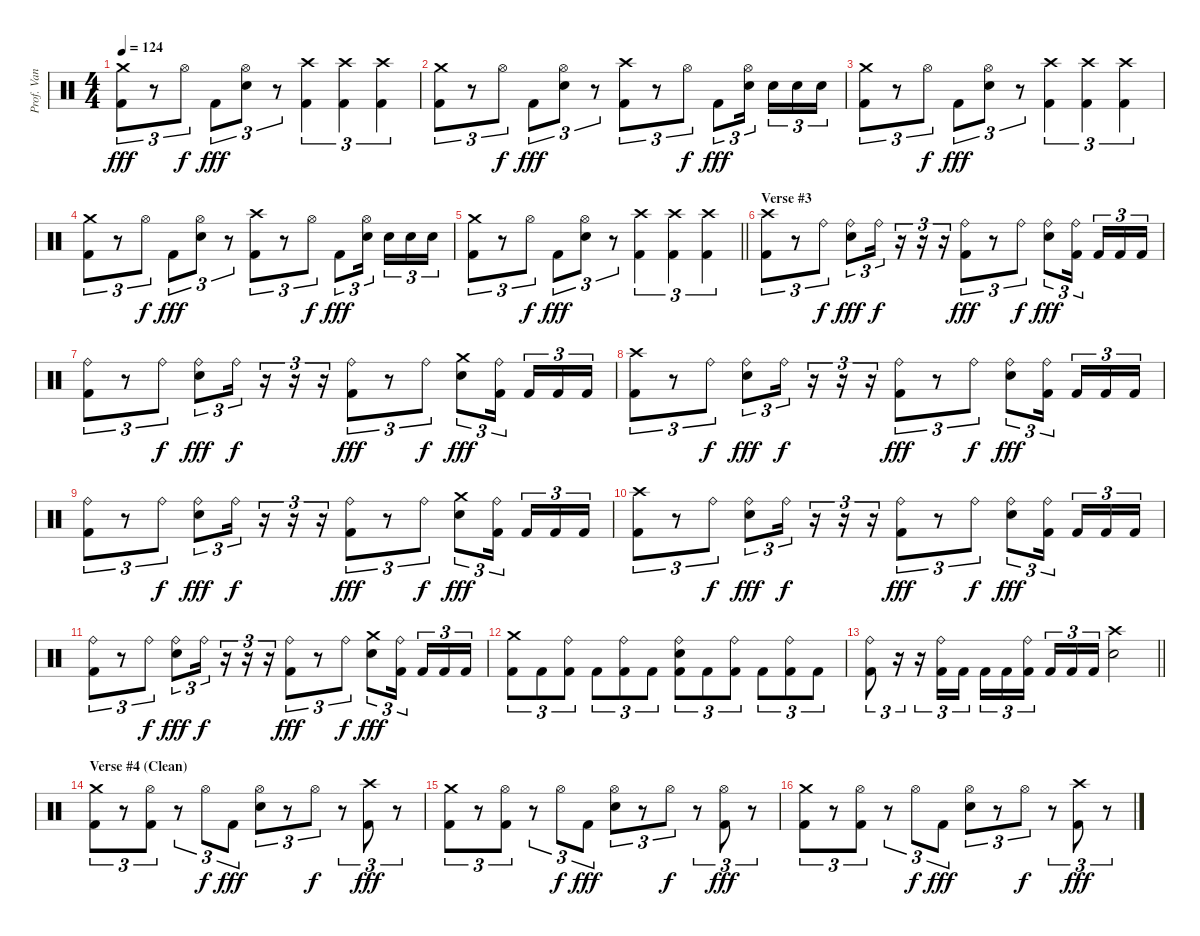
\track ("Prof. Van Helsing (Drums)" "Prof. Van ") {instrument percussion}
\staff {score}
\articulation defaults
\ts (4 4)
\tempo 124
\clef neutral
\ks c
("Crash medium (hit)" "Kick (hit) 2").8{tu (3 2) dy fff} r.8{tu (3 2)} "Hi-Hat (open)".8{tu (3 2) dy f} "Kick (hit) 2".8{tu (3 2) dy fff} ("Hi-Hat (open)" "Snare (hit) 2").8{tu (3 2)} r.8{tu (3 2)} ("Crash high (hit)" "Kick (hit) 2").4{tu (3 2)} ("Crash high (hit)" "Kick (hit) 2").4{tu (3 2)} ("Crash high (hit)" "Kick (hit) 2").4{tu (3 2)} |
("Crash medium (hit)" "Kick (hit) 2").8{tu (3 2)} r.8{tu (3 2)} "Hi-Hat (open)".8{tu (3 2) dy f} "Kick (hit) 2".8{tu (3 2) dy fff} ("Hi-Hat (open)" "Snare (hit) 2").8{tu (3 2)} r.8{tu (3 2)} ("Crash high (hit)" "Kick (hit) 2").8{tu (3 2)} r.8{tu (3 2)} "Hi-Hat (open)".8{tu (3 2) dy f} "Kick (hit) 2".8{tu (3 2) dy fff} ("Hi-Hat (open)" "Snare (hit) 2").16{tu (3 2) beam splitsecondary} "Snare (hit) 2".16{tu (3 2)} "Snare (hit) 2".16{tu (3 2)} "Snare (hit) 2".16{tu (3 2)} |
("Crash medium (hit)" "Kick (hit) 2").8{tu (3 2)} r.8{tu (3 2)} "Hi-Hat (open)".8{tu (3 2) dy f} "Kick (hit) 2".8{tu (3 2) dy fff} ("Hi-Hat (open)" "Snare (hit) 2").8{tu (3 2)} r.8{tu (3 2)} ("Crash high (hit)" "Kick (hit) 2").4{tu (3 2)} ("Crash high (hit)" "Kick (hit) 2").4{tu (3 2)} ("Crash high (hit)" "Kick (hit) 2").4{tu (3 2)} |
("Crash medium (hit)" "Kick (hit) 2").8{tu (3 2)} r.8{tu (3 2)} "Hi-Hat (open)".8{tu (3 2) dy f} "Kick (hit) 2".8{tu (3 2) dy fff} ("Hi-Hat (open)" "Snare (hit) 2").8{tu (3 2)} r.8{tu (3 2)} ("Crash high (hit)" "Kick (hit) 2").8{tu (3 2)} r.8{tu (3 2)} "Hi-Hat (open)".8{tu (3 2) dy f} "Kick (hit) 2".8{tu (3 2) dy fff} ("Hi-Hat (open)" "Snare (hit) 2").16{tu (3 2) beam splitsecondary} "Snare (hit) 2".16{tu (3 2)} "Snare (hit) 2".16{tu (3 2)} "Snare (hit) 2".16{tu (3 2)} |
\barLineRight lightlight
("Crash medium (hit)" "Kick (hit) 2").8{tu (3 2)} r.8{tu (3 2)} "Hi-Hat (open)".8{tu (3 2) dy f} "Kick (hit) 2".8{tu (3 2) dy fff} ("Hi-Hat (open)" "Snare (hit) 2").8{tu (3 2)} r.8{tu (3 2)} ("Crash high (hit)" "Kick (hit) 2").4{tu (3 2)} ("Crash high (hit)" "Kick (hit) 2").4{tu (3 2)} ("Crash high (hit)" "Kick (hit) 2").4{tu (3 2)} |
\section ("" "Verse #3")
("Crash high (hit)" "Kick (hit) 2").8{tu (3 2)} r.8{tu (3 2)} "Ride (bell)".8{tu (3 2) dy f} ("Ride (bell)" "Snare (hit) 2").8{tu (3 2) dy fff} "Ride (bell)".16{tu (3 2) dy f} r.16{tu (3 2)} r.16{tu (3 2)} r.16{tu (3 2)} ("Ride (bell)" "Kick (hit) 2").8{tu (3 2) dy fff} r.8{tu (3 2)} "Ride (bell)".8{tu (3 2) dy f} ("Ride (bell)" "Snare (hit) 2").8{tu (3 2) dy fff} ("Ride (bell)" "Kick (hit) 2").16{tu (3 2) beam splitsecondary} "Kick (hit) 2".16{tu (3 2)} "Kick (hit) 2".16{tu (3 2)} "Kick (hit) 2".16{tu (3 2)} |
("Ride (bell)" "Kick (hit) 2").8{tu (3 2)} r.8{tu (3 2)} "Ride (bell)".8{tu (3 2) dy f} ("Ride (bell)" "Snare (hit) 2").8{tu (3 2) dy fff} "Ride (bell)".16{tu (3 2) dy f} r.16{tu (3 2)} r.16{tu (3 2)} r.16{tu (3 2)} ("Ride (bell)" "Kick (hit) 2").8{tu (3 2) dy fff} r.8{tu (3 2)} "Ride (bell)".8{tu (3 2) dy f} ("Crash medium (hit)" "Snare (hit) 2").8{tu (3 2) dy fff} ("Ride (bell)" "Kick (hit) 2").16{tu (3 2) beam splitsecondary} "Kick (hit) 2".16{tu (3 2)} "Kick (hit) 2".16{tu (3 2)} "Kick (hit) 2".16{tu (3 2)} |
("Crash high (hit)" "Kick (hit) 2").8{tu (3 2)} r.8{tu (3 2)} "Ride (bell)".8{tu (3 2) dy f} ("Ride (bell)" "Snare (hit) 2").8{tu (3 2) dy fff} "Ride (bell)".16{tu (3 2) dy f} r.16{tu (3 2)} r.16{tu (3 2)} r.16{tu (3 2)} ("Ride (bell)" "Kick (hit) 2").8{tu (3 2) dy fff} r.8{tu (3 2)} "Ride (bell)".8{tu (3 2) dy f} ("Ride (bell)" "Snare (hit) 2").8{tu (3 2) dy fff} ("Ride (bell)" "Kick (hit) 2").16{tu (3 2) beam splitsecondary} "Kick (hit) 2".16{tu (3 2)} "Kick (hit) 2".16{tu (3 2)} "Kick (hit) 2".16{tu (3 2)} |
("Ride (bell)" "Kick (hit) 2").8{tu (3 2)} r.8{tu (3 2)} "Ride (bell)".8{tu (3 2) dy f} ("Ride (bell)" "Snare (hit) 2").8{tu (3 2) dy fff} "Ride (bell)".16{tu (3 2) dy f} r.16{tu (3 2)} r.16{tu (3 2)} r.16{tu (3 2)} ("Ride (bell)" "Kick (hit) 2").8{tu (3 2) dy fff} r.8{tu (3 2)} "Ride (bell)".8{tu (3 2) dy f} ("Crash medium (hit)" "Snare (hit) 2").8{tu (3 2) dy fff} ("Ride (bell)" "Kick (hit) 2").16{tu (3 2) beam splitsecondary} "Kick (hit) 2".16{tu (3 2)} "Kick (hit) 2".16{tu (3 2)} "Kick (hit) 2".16{tu (3 2)} |
("Crash high (hit)" "Kick (hit) 2").8{tu (3 2)} r.8{tu (3 2)} "Ride (bell)".8{tu (3 2) dy f} ("Ride (bell)" "Snare (hit) 2").8{tu (3 2) dy fff} "Ride (bell)".16{tu (3 2) dy f} r.16{tu (3 2)} r.16{tu (3 2)} r.16{tu (3 2)} ("Ride (bell)" "Kick (hit) 2").8{tu (3 2) dy fff} r.8{tu (3 2)} "Ride (bell)".8{tu (3 2) dy f} ("Ride (bell)" "Snare (hit) 2").8{tu (3 2) dy fff} ("Ride (bell)" "Kick (hit) 2").16{tu (3 2) beam splitsecondary} "Kick (hit) 2".16{tu (3 2)} "Kick (hit) 2".16{tu (3 2)} "Kick (hit) 2".16{tu (3 2)} |
("Ride (bell)" "Kick (hit) 2").8{tu (3 2)} r.8{tu (3 2)} "Ride (bell)".8{tu (3 2) dy f} ("Ride (bell)" "Snare (hit) 2").8{tu (3 2) dy fff} "Ride (bell)".16{tu (3 2) dy f} r.16{tu (3 2)} r.16{tu (3 2)} r.16{tu (3 2)} ("Ride (bell)" "Kick (hit) 2").8{tu (3 2) dy fff} r.8{tu (3 2)} "Ride (bell)".8{tu (3 2) dy f} ("Crash medium (hit)" "Snare (hit) 2").8{tu (3 2) dy fff} ("Ride (bell)" "Kick (hit) 2").16{tu (3 2) beam splitsecondary} "Kick (hit) 2".16{tu (3 2)} "Kick (hit) 2".16{tu (3 2)} "Kick (hit) 2".16{tu (3 2)} |
("Crash medium (hit)" "Kick (hit) 2").8{tu (3 2)} "Kick (hit) 2".8{tu (3 2)} ("Ride (bell)" "Kick (hit) 2").8{tu (3 2)} "Kick (hit) 2".8{tu (3 2)} ("Ride (bell)" "Kick (hit) 2").8{tu (3 2)} "Kick (hit) 2".8{tu (3 2)} ("Ride (bell)" "Snare (hit) 2" "Kick (hit) 2").8{tu (3 2)} "Kick (hit) 2".8{tu (3 2)} ("Ride (bell)" "Kick (hit) 2").8{tu (3 2)} "Kick (hit) 2".8{tu (3 2)} ("Ride (bell)" "Kick (hit) 2").8{tu (3 2)} "Kick (hit) 2".8{tu (3 2)} |
\barLineRight lightlight
("Ride (bell)" "Kick (hit) 2").8{tu (3 2)} r.16{tu (3 2)} r.16{tu (3 2)} ("Ride (bell)" "Kick (hit) 2").16{tu (3 2)} "Kick (hit) 2".16{tu (3 2)} "Kick (hit) 2".16{tu (3 2)} "Kick (hit) 2".16{tu (3 2)} ("Ride (bell)" "Kick (hit) 2").16{tu (3 2) beam splitsecondary} "Kick (hit) 2".16{tu (3 2)} "Kick (hit) 2".16{tu (3 2)} "Kick (hit) 2".16{tu (3 2)} ("Crash high (hit)" "Snare (hit) 2").2 |
\section ("" "Verse #4 (Clean)")
("Crash medium (hit)" "Kick (hit) 2").8{tu (3 2)} r.8{tu (3 2)} ("Hi-Hat (open)" "Kick (hit) 2").8{tu (3 2)} r.8{tu (3 2)} "Hi-Hat (open)".8{tu (3 2) dy f} "Kick (hit) 2".8{tu (3 2) dy fff} ("Hi-Hat (open)" "Snare (hit) 2").8{tu (3 2)} r.8{tu (3 2)} "Hi-Hat (open)".8{tu (3 2) dy f} r.8{tu (3 2)} ("Crash high (hit)" "Kick (hit) 2").8{tu (3 2) dy fff} r.8{tu (3 2)} |
("Crash medium (hit)" "Kick (hit) 2").8{tu (3 2)} r.8{tu (3 2)} ("Hi-Hat (open)" "Kick (hit) 2").8{tu (3 2)} r.8{tu (3 2)} "Hi-Hat (open)".8{tu (3 2) dy f} "Kick (hit) 2".8{tu (3 2) dy fff} ("Hi-Hat (open)" "Snare (hit) 2").8{tu (3 2)} r.8{tu (3 2)} "Hi-Hat (open)".8{tu (3 2) dy f} r.8{tu (3 2)} ("Hi-Hat (open)" "Kick (hit) 2").8{tu (3 2) dy fff} r.8{tu (3 2)} |
("Crash medium (hit)" "Kick (hit) 2").8{tu (3 2)} r.8{tu (3 2)} ("Hi-Hat (open)" "Kick (hit) 2").8{tu (3 2)} r.8{tu (3 2)} "Hi-Hat (open)".8{tu (3 2) dy f} "Kick (hit) 2".8{tu (3 2) dy fff} ("Hi-Hat (open)" "Snare (hit) 2").8{tu (3 2)} r.8{tu (3 2)} "Hi-Hat (open)".8{tu (3 2) dy f} r.8{tu (3 2)} ("Crash high (hit)" "Kick (hit) 2").8{tu (3 2) dy fff} r.8{tu (3 2)}
